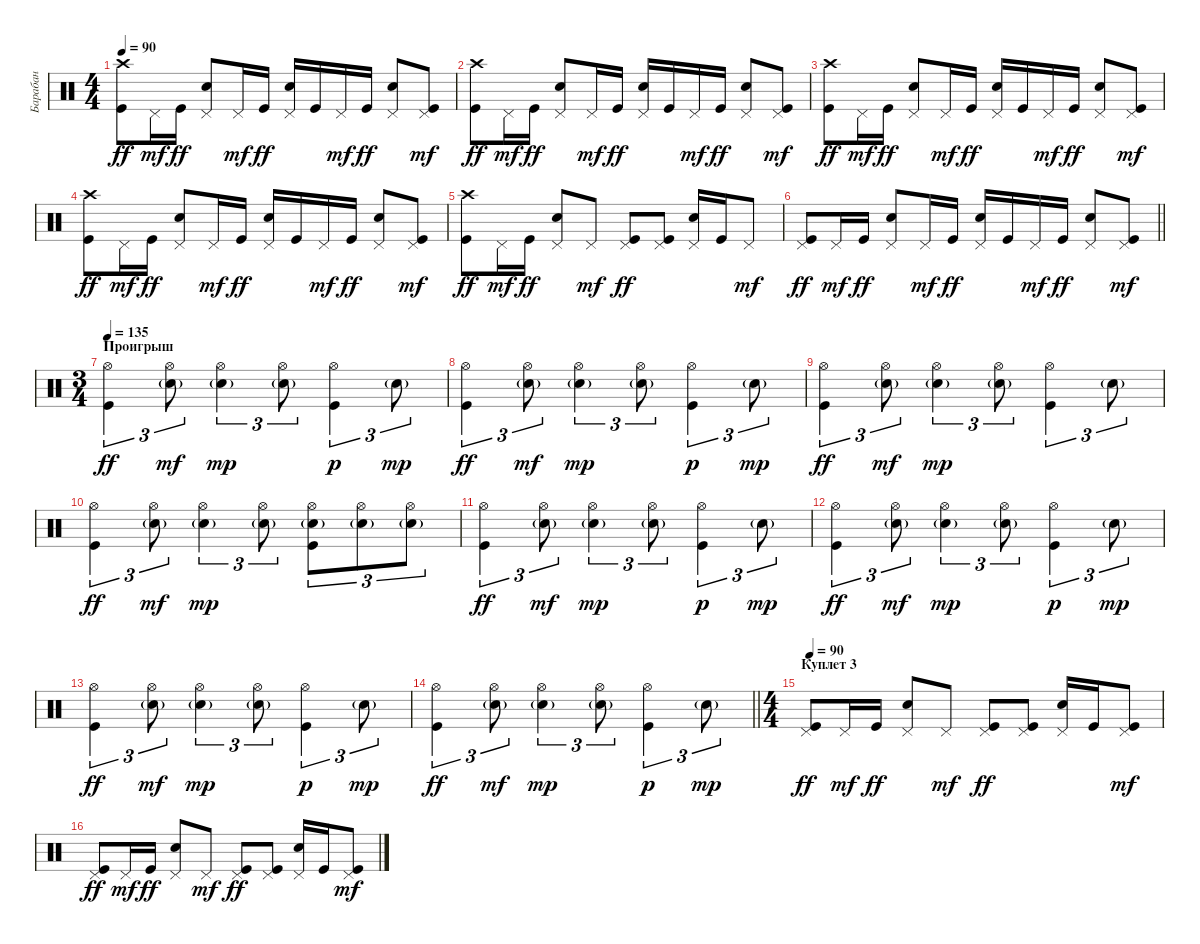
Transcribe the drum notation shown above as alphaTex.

\track ("Барабан" "Барабан") {instrument percussion}
\staff {score}
\articulation defaults
\ts (4 4)
\tempo 90
\clef neutral
\ks c
("Crash high (hit)" "Kick (hit)").8{dy ff} "Pedal Hi-Hat (hit)".16{dy mf} "Kick (hit)".16{dy ff} ("Pedal Hi-Hat (hit)" "Snare (hit) 2").8 "Pedal Hi-Hat (hit)".16{dy mf} "Kick (hit)".16{dy ff} ("Pedal Hi-Hat (hit)" "Snare (hit) 2").16 "Kick (hit)".16 "Pedal Hi-Hat (hit)".16{dy mf} "Kick (hit)".16{dy ff} ("Pedal Hi-Hat (hit)" "Snare (hit) 2").8 ("Pedal Hi-Hat (hit)" "Kick (hit)").8{dy mf} |
("Crash high (hit)" "Kick (hit)").8{dy ff} "Pedal Hi-Hat (hit)".16{dy mf} "Kick (hit)".16{dy ff} ("Pedal Hi-Hat (hit)" "Snare (hit) 2").8 "Pedal Hi-Hat (hit)".16{dy mf} "Kick (hit)".16{dy ff} ("Pedal Hi-Hat (hit)" "Snare (hit) 2").16 "Kick (hit)".16 "Pedal Hi-Hat (hit)".16{dy mf} "Kick (hit)".16{dy ff} ("Pedal Hi-Hat (hit)" "Snare (hit) 2").8 ("Pedal Hi-Hat (hit)" "Kick (hit)").8{dy mf} |
("Crash high (hit)" "Kick (hit)").8{dy ff} "Pedal Hi-Hat (hit)".16{dy mf} "Kick (hit)".16{dy ff} ("Pedal Hi-Hat (hit)" "Snare (hit) 2").8 "Pedal Hi-Hat (hit)".16{dy mf} "Kick (hit)".16{dy ff} ("Pedal Hi-Hat (hit)" "Snare (hit) 2").16 "Kick (hit)".16 "Pedal Hi-Hat (hit)".16{dy mf} "Kick (hit)".16{dy ff} ("Pedal Hi-Hat (hit)" "Snare (hit) 2").8 ("Pedal Hi-Hat (hit)" "Kick (hit)").8{dy mf} |
("Crash high (hit)" "Kick (hit)").8{dy ff} "Pedal Hi-Hat (hit)".16{dy mf} "Kick (hit)".16{dy ff} ("Pedal Hi-Hat (hit)" "Snare (hit) 2").8 "Pedal Hi-Hat (hit)".16{dy mf} "Kick (hit)".16{dy ff} ("Pedal Hi-Hat (hit)" "Snare (hit) 2").16 "Kick (hit)".16 "Pedal Hi-Hat (hit)".16{dy mf} "Kick (hit)".16{dy ff} ("Pedal Hi-Hat (hit)" "Snare (hit) 2").8 ("Pedal Hi-Hat (hit)" "Kick (hit)").8{dy mf} |
("Crash high (hit)" "Kick (hit)").8{dy ff} "Pedal Hi-Hat (hit)".16{dy mf} "Kick (hit)".16{dy ff} ("Pedal Hi-Hat (hit)" "Snare (hit) 2").8 "Pedal Hi-Hat (hit)".8{dy mf} ("Pedal Hi-Hat (hit)" "Kick (hit)").8{dy ff} ("Pedal Hi-Hat (hit)" "Kick (hit)").8 ("Pedal Hi-Hat (hit)" "Snare (hit) 2").16 "Kick (hit)".16 "Pedal Hi-Hat (hit)".8{dy mf} |
\barLineRight lightlight
("Pedal Hi-Hat (hit)" "Kick (hit)").8{dy ff} "Pedal Hi-Hat (hit)".16{dy mf} "Kick (hit)".16{dy ff} ("Pedal Hi-Hat (hit)" "Snare (hit) 2").8 "Pedal Hi-Hat (hit)".16{dy mf} "Kick (hit)".16{dy ff} ("Pedal Hi-Hat (hit)" "Snare (hit) 2").16 "Kick (hit)".16 "Pedal Hi-Hat (hit)".16{dy mf} "Kick (hit)".16{dy ff} ("Pedal Hi-Hat (hit)" "Snare (hit) 2").8 ("Pedal Hi-Hat (hit)" "Kick (hit)").8{dy mf} |
\ts (3 4)
\section ("" "Проигрыш")
\tempo 135
("Hi-Hat (open)" "Kick (hit)").4{tu (3 2) dy ff} ("Hi-Hat (open)" "Snare (hit) 2"{g}).8{tu (3 2) dy mf} ("Hi-Hat (open)" "Snare (hit) 2"{g}).4{tu (3 2) dy mp} ("Hi-Hat (open)" "Snare (hit) 2"{g}).8{tu (3 2)} ("Hi-Hat (open)" "Kick (hit)").4{tu (3 2) dy p} "Snare (hit) 2"{g}.8{tu (3 2) dy mp} |
("Hi-Hat (open)" "Kick (hit)").4{tu (3 2) dy ff} ("Hi-Hat (open)" "Snare (hit) 2"{g}).8{tu (3 2) dy mf} ("Hi-Hat (open)" "Snare (hit) 2"{g}).4{tu (3 2) dy mp} ("Hi-Hat (open)" "Snare (hit) 2"{g}).8{tu (3 2)} ("Hi-Hat (open)" "Kick (hit)").4{tu (3 2) dy p} "Snare (hit) 2"{g}.8{tu (3 2) dy mp} |
("Hi-Hat (open)" "Kick (hit)").4{tu (3 2) dy ff} ("Hi-Hat (open)" "Snare (hit) 2"{g}).8{tu (3 2) dy mf} ("Hi-Hat (open)" "Snare (hit) 2"{g}).4{tu (3 2) dy mp} ("Hi-Hat (open)" "Snare (hit) 2"{g}).8{tu (3 2)} ("Hi-Hat (open)" "Kick (hit)").4{tu (3 2)} "Snare (hit) 2"{g}.8{tu (3 2)} |
("Hi-Hat (open)" "Kick (hit)").4{tu (3 2) dy ff} ("Hi-Hat (open)" "Snare (hit) 2"{g}).8{tu (3 2) dy mf} ("Hi-Hat (open)" "Snare (hit) 2"{g}).4{tu (3 2) dy mp} ("Hi-Hat (open)" "Snare (hit) 2"{g}).8{tu (3 2)} ("Hi-Hat (open)" "Snare (hit) 2"{g} "Kick (hit)").8{tu (3 2)} ("Hi-Hat (open)" "Snare (hit) 2"{g}).8{tu (3 2)} ("Hi-Hat (open)" "Snare (hit) 2"{g}).8{tu (3 2)} |
("Hi-Hat (open)" "Kick (hit)").4{tu (3 2) dy ff} ("Hi-Hat (open)" "Snare (hit) 2"{g}).8{tu (3 2) dy mf} ("Hi-Hat (open)" "Snare (hit) 2"{g}).4{tu (3 2) dy mp} ("Hi-Hat (open)" "Snare (hit) 2"{g}).8{tu (3 2)} ("Hi-Hat (open)" "Kick (hit)").4{tu (3 2) dy p} "Snare (hit) 2"{g}.8{tu (3 2) dy mp} |
("Hi-Hat (open)" "Kick (hit)").4{tu (3 2) dy ff} ("Hi-Hat (open)" "Snare (hit) 2"{g}).8{tu (3 2) dy mf} ("Hi-Hat (open)" "Snare (hit) 2"{g}).4{tu (3 2) dy mp} ("Hi-Hat (open)" "Snare (hit) 2"{g}).8{tu (3 2)} ("Hi-Hat (open)" "Kick (hit)").4{tu (3 2) dy p} "Snare (hit) 2"{g}.8{tu (3 2) dy mp} |
("Hi-Hat (open)" "Kick (hit)").4{tu (3 2) dy ff} ("Hi-Hat (open)" "Snare (hit) 2"{g}).8{tu (3 2) dy mf} ("Hi-Hat (open)" "Snare (hit) 2"{g}).4{tu (3 2) dy mp} ("Hi-Hat (open)" "Snare (hit) 2"{g}).8{tu (3 2)} ("Hi-Hat (open)" "Kick (hit)").4{tu (3 2) dy p} "Snare (hit) 2"{g}.8{tu (3 2) dy mp} |
\barLineRight lightlight
("Hi-Hat (open)" "Kick (hit)").4{tu (3 2) dy ff} ("Hi-Hat (open)" "Snare (hit) 2"{g}).8{tu (3 2) dy mf} ("Hi-Hat (open)" "Snare (hit) 2"{g}).4{tu (3 2) dy mp} ("Hi-Hat (open)" "Snare (hit) 2"{g}).8{tu (3 2)} ("Hi-Hat (open)" "Kick (hit)").4{tu (3 2) dy p} "Snare (hit) 2"{g}.8{tu (3 2) dy mp} |
\ts (4 4)
\section ("" "Куплет 3")
\tempo 90
("Pedal Hi-Hat (hit)" "Kick (hit)").8{dy ff} "Pedal Hi-Hat (hit)".16{dy mf} "Kick (hit)".16{dy ff} ("Pedal Hi-Hat (hit)" "Snare (hit) 2").8 "Pedal Hi-Hat (hit)".8{dy mf} ("Pedal Hi-Hat (hit)" "Kick (hit)").8{dy ff} ("Pedal Hi-Hat (hit)" "Kick (hit)").8 ("Pedal Hi-Hat (hit)" "Snare (hit) 2").16 "Kick (hit)".16 ("Pedal Hi-Hat (hit)" "Kick (hit)").8{dy mf} |
("Pedal Hi-Hat (hit)" "Kick (hit)").8{dy ff} "Pedal Hi-Hat (hit)".16{dy mf} "Kick (hit)".16{dy ff} ("Pedal Hi-Hat (hit)" "Snare (hit) 2").8 "Pedal Hi-Hat (hit)".8{dy mf} ("Pedal Hi-Hat (hit)" "Kick (hit)").8{dy ff} ("Pedal Hi-Hat (hit)" "Kick (hit)").8 ("Pedal Hi-Hat (hit)" "Snare (hit) 2").16 "Kick (hit)".16 ("Pedal Hi-Hat (hit)" "Kick (hit)").8{dy mf}
